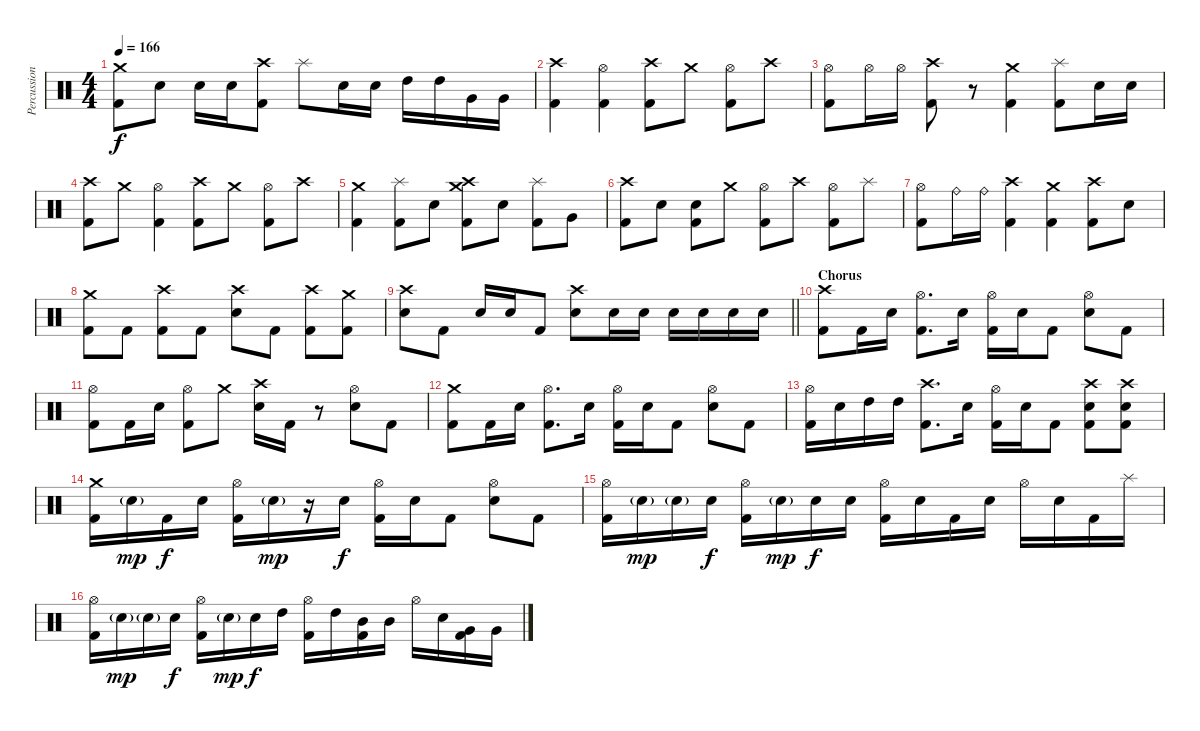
\track ("Percussion" "Percussion") {instrument percussion}
\staff {score}
\articulation defaults
\ts (4 4)
\tempo 166
\clef neutral
\ks c
("Crash medium (hit)" "Kick (hit) 2").8{dy f} "Electric Snare (hit)".8 "Electric Snare (hit)".16 "Electric Snare (hit)".16 ("Crash high (hit)" "Kick (hit) 2").8 "Splash (hit)".8 "Electric Snare (hit)".16 "Electric Snare (hit)".16 "High Tom (hit)".16 "High Tom (hit)".16 "Very Low Tom (hit)".16 "Very Low Tom (hit)".16 |
("Crash high (hit)" "Kick (hit) 2").4 ("Hi-Hat (open)" "Kick (hit) 2").4 ("Crash high (hit)" "Kick (hit) 2").8 "Crash medium (hit)".8 ("Hi-Hat (open)" "Kick (hit) 2").8 "Crash high (hit)".8 |
("Hi-Hat (open)" "Kick (hit) 2").8 "Hi-Hat (open)".16 "Hi-Hat (open)".16 ("Crash high (hit)" "Kick (hit) 2").8 r.8 ("Crash medium (hit)" "Kick (hit) 2").4 ("Splash (hit)" "Kick (hit) 2").8 "Electric Snare (hit)".16 "Electric Snare (hit)".16 |
("Crash high (hit)" "Kick (hit) 2").8 "Crash medium (hit)".8 ("Hi-Hat (open)" "Kick (hit) 2").4 ("Crash high (hit)" "Kick (hit) 2").8 "Crash medium (hit)".8 ("Hi-Hat (open)" "Kick (hit) 2").8 "Crash high (hit)".8 |
("Crash medium (hit)" "Kick (hit) 2").4 ("Splash (hit)" "Kick (hit) 2").8 "Electric Snare (hit)".8 ("Crash high (hit)" "Crash medium (hit)" "Kick (hit) 2").8 "Electric Snare (hit)".8 ("Splash (hit)" "Kick (hit) 2").8 "Very Low Tom (hit)".8 |
("Crash high (hit)" "Kick (hit) 2").8 "Electric Snare (hit)".8 ("Electric Snare (hit)" "Kick (hit) 2").8 "Crash medium (hit)".8 ("Hi-Hat (open)" "Kick (hit) 2").8 "Crash high (hit)".8 ("Hi-Hat (open)" "Kick (hit) 2").8 "Splash (hit)".8 |
("Hi-Hat (open)" "Kick (hit) 2").8 "Ride (bell)".16 "Ride (bell)".16 ("Crash high (hit)" "Kick (hit) 2").4 ("Crash medium (hit)" "Kick (hit) 2").4 ("Crash high (hit)" "Kick (hit) 2").8 "Electric Snare (hit)".8 |
("Crash medium (hit)" "Kick (hit) 2").8 "Kick (hit) 2".8 ("Crash high (hit)" "Kick (hit) 2").8 "Kick (hit) 2".8 ("Crash high (hit)" "Electric Snare (hit)").8 "Kick (hit) 2".8 ("Crash high (hit)" "Kick (hit) 2").8 ("Crash medium (hit)" "Kick (hit) 2").8 |
\barLineRight lightlight
("Crash high (hit)" "Electric Snare (hit)").8 "Kick (hit) 2".8 "Electric Snare (hit)".16 "Electric Snare (hit)".16 "Kick (hit) 2".8 ("Crash high (hit)" "Electric Snare (hit)").8 "Electric Snare (hit)".16 "Electric Snare (hit)".16 "Electric Snare (hit)".16 "Electric Snare (hit)".16 "Electric Snare (hit)".16 "Electric Snare (hit)".16 |
\section ("" "Chorus")
("Crash high (hit)" "Kick (hit) 2").8 "Kick (hit) 2".16 "Electric Snare (hit)".16 ("Hi-Hat (open)" "Kick (hit) 2").8{d} "Electric Snare (hit)".16 ("Hi-Hat (open)" "Kick (hit) 2").16 "Electric Snare (hit)".16 "Kick (hit) 2".8 ("Hi-Hat (open)" "Electric Snare (hit)").8 "Kick (hit) 2".8 |
("Hi-Hat (open)" "Kick (hit) 2").8 "Kick (hit) 2".16 "Electric Snare (hit)".16 ("Hi-Hat (open)" "Kick (hit) 2").8 "Crash medium (hit)".8 ("Crash high (hit)" "Electric Snare (hit)").16 "Kick (hit) 2".16 r.8 ("Hi-Hat (open)" "Electric Snare (hit)").8 "Kick (hit) 2".8 |
("Crash medium (hit)" "Kick (hit) 2").8 "Kick (hit) 2".16 "Electric Snare (hit)".16 ("Hi-Hat (open)" "Kick (hit) 2").8{d} "Electric Snare (hit)".16 ("Hi-Hat (open)" "Kick (hit) 2").16 "Electric Snare (hit)".16 "Kick (hit) 2".8 ("Hi-Hat (open)" "Electric Snare (hit)").8 "Kick (hit) 2".8 |
("Hi-Hat (open)" "Kick (hit) 2").16 "Electric Snare (hit)".16 "High Tom (hit)".16 "High Tom (hit)".16 ("Crash high (hit)" "Kick (hit) 2").8{d} "Electric Snare (hit)".16 ("Hi-Hat (open)" "Kick (hit) 2").16 "Electric Snare (hit)".16 "Kick (hit) 2".8 ("Crash high (hit)" "Electric Snare (hit)" "Kick (hit) 2").8 ("Crash high (hit)" "Electric Snare (hit)" "Kick (hit) 2").8 |
("Crash medium (hit)" "Kick (hit) 2").16 "Electric Snare (hit)"{g}.16{dy mp} "Kick (hit) 2".16{dy f} "Electric Snare (hit)".16 ("Hi-Hat (open)" "Kick (hit) 2").16 "Electric Snare (hit)"{g}.16{dy mp} r.16 "Electric Snare (hit)".16{dy f} ("Hi-Hat (open)" "Kick (hit) 2").16 "Electric Snare (hit)".16 "Kick (hit) 2".8 ("Hi-Hat (open)" "Electric Snare (hit)").8 "Kick (hit) 2".8 |
("Hi-Hat (open)" "Kick (hit) 2").16 "Electric Snare (hit)"{g}.16{dy mp} "Electric Snare (hit)"{g}.16 "Electric Snare (hit)".16{dy f} ("Hi-Hat (open)" "Kick (hit) 2").16 "Electric Snare (hit)"{g}.16{dy mp} "Electric Snare (hit)".16{dy f} "Electric Snare (hit)".16 ("Hi-Hat (open)" "Kick (hit) 2").16 "Electric Snare (hit)".16 "Kick (hit) 2".16 "Electric Snare (hit)".16 "Hi-Hat (open)".16 "Electric Snare (hit)".16 "Kick (hit) 2".16 "Splash (hit)".16 |
("Hi-Hat (open)" "Kick (hit) 2").16 "Electric Snare (hit)"{g}.16{dy mp} "Electric Snare (hit)"{g}.16 "Electric Snare (hit)".16{dy f} ("Hi-Hat (open)" "Kick (hit) 2").16 "Electric Snare (hit)"{g}.16{dy mp} "Electric Snare (hit)".16{dy f} "High Tom (hit)".16 ("Hi-Hat (open)" "Kick (hit) 2").16 "High Tom (hit)".16 ("Mid Tom (hit)" "Kick (hit) 2").16 "Mid Tom (hit)".16 "Hi-Hat (open)".16 "Electric Snare (hit)".16 ("Very Low Tom (hit)" "Kick (hit) 2").16 "Very Low Tom (hit)".16
